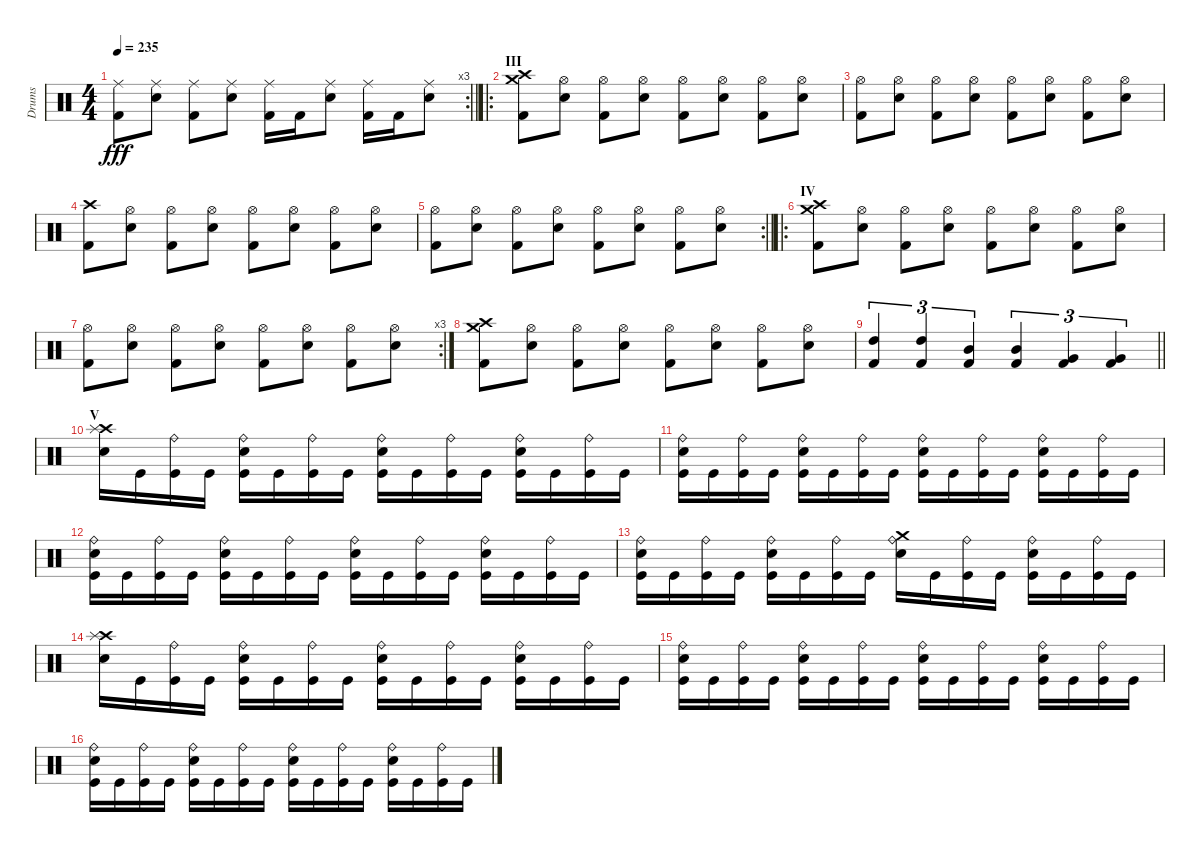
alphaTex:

\track ("Drums" "Drums") {instrument percussion}
\staff {score}
\articulation defaults
\rc 3
\ts (4 4)
\tempo 235
\clef neutral
\barLineRight lightlight
\ks c
("Ride (middle)" "Kick (hit) 2").8{dy fff} ("Ride (middle)" "Electric Snare (hit)").8 ("Ride (middle)" "Kick (hit) 2").8 ("Ride (middle)" "Electric Snare (hit)").8 ("Ride (middle)" "Kick (hit) 2").16 "Kick (hit) 2".16 ("Ride (middle)" "Electric Snare (hit)").8 ("Ride (middle)" "Kick (hit) 2").16 "Kick (hit) 2".16 ("Ride (middle)" "Electric Snare (hit)").8 |
\ro
\section ("" "III")
("Crash high (hit)" "Crash medium (hit)" "Kick (hit) 2").8 ("Hi-Hat (open)" "Snare (hit) 2").8 ("Hi-Hat (open)" "Kick (hit) 2").8 ("Hi-Hat (open)" "Snare (hit) 2").8 ("Hi-Hat (open)" "Kick (hit) 2").8 ("Hi-Hat (open)" "Snare (hit) 2").8 ("Hi-Hat (open)" "Kick (hit) 2").8 ("Hi-Hat (open)" "Snare (hit) 2").8 |
("Hi-Hat (open)" "Kick (hit) 2").8 ("Hi-Hat (open)" "Snare (hit) 2").8 ("Hi-Hat (open)" "Kick (hit) 2").8 ("Hi-Hat (open)" "Snare (hit) 2").8 ("Hi-Hat (open)" "Kick (hit) 2").8 ("Hi-Hat (open)" "Snare (hit) 2").8 ("Hi-Hat (open)" "Kick (hit) 2").8 ("Hi-Hat (open)" "Snare (hit) 2").8 |
("Crash high (hit)" "Kick (hit) 2").8 ("Hi-Hat (open)" "Snare (hit) 2").8 ("Hi-Hat (open)" "Kick (hit) 2").8 ("Hi-Hat (open)" "Snare (hit) 2").8 ("Hi-Hat (open)" "Kick (hit) 2").8 ("Hi-Hat (open)" "Snare (hit) 2").8 ("Hi-Hat (open)" "Kick (hit) 2").8 ("Hi-Hat (open)" "Snare (hit) 2").8 |
\rc 2
\barLineRight lightlight
("Hi-Hat (open)" "Kick (hit) 2").8 ("Hi-Hat (open)" "Snare (hit) 2").8 ("Hi-Hat (open)" "Kick (hit) 2").8 ("Hi-Hat (open)" "Snare (hit) 2").8 ("Hi-Hat (open)" "Kick (hit) 2").8 ("Hi-Hat (open)" "Snare (hit) 2").8 ("Hi-Hat (open)" "Kick (hit) 2").8 ("Hi-Hat (open)" "Snare (hit) 2").8 |
\ro
\section ("" "IV")
("Crash high (hit)" "Crash medium (hit)" "Kick (hit) 2").8 ("Hi-Hat (open)" "Snare (hit) 2").8 ("Hi-Hat (open)" "Kick (hit) 2").8 ("Hi-Hat (open)" "Snare (hit) 2").8 ("Hi-Hat (open)" "Kick (hit) 2").8 ("Hi-Hat (open)" "Snare (hit) 2").8 ("Hi-Hat (open)" "Kick (hit) 2").8 ("Hi-Hat (open)" "Snare (hit) 2").8 |
\rc 3
("Hi-Hat (open)" "Kick (hit) 2").8 ("Hi-Hat (open)" "Snare (hit) 2").8 ("Hi-Hat (open)" "Kick (hit) 2").8 ("Hi-Hat (open)" "Snare (hit) 2").8 ("Hi-Hat (open)" "Kick (hit) 2").8 ("Hi-Hat (open)" "Snare (hit) 2").8 ("Hi-Hat (open)" "Kick (hit) 2").8 ("Hi-Hat (open)" "Snare (hit) 2").8 |
("Crash high (hit)" "Crash medium (hit)" "Kick (hit) 2").8 ("Hi-Hat (open)" "Snare (hit) 2").8 ("Hi-Hat (open)" "Kick (hit) 2").8 ("Hi-Hat (open)" "Snare (hit) 2").8 ("Hi-Hat (open)" "Kick (hit) 2").8 ("Hi-Hat (open)" "Snare (hit) 2").8 ("Hi-Hat (open)" "Kick (hit) 2").8 ("Hi-Hat (open)" "Snare (hit) 2").8 |
\barLineRight lightlight
("High Tom (hit)" "Kick (hit) 2").4{tu (3 2)} ("High Tom (hit)" "Kick (hit) 2").4{tu (3 2)} ("Mid Tom (hit)" "Kick (hit) 2").4{tu (3 2)} ("Mid Tom (hit)" "Kick (hit) 2").4{tu (3 2)} ("Very Low Tom (hit)" "Kick (hit) 2").4{tu (3 2)} ("Very Low Tom (hit)" "Kick (hit) 2").4{tu (3 2)} |
\section ("" "V")
("Crash high (hit)" "Electric Snare (hit)" "Splash (hit)").16 "Kick (hit)".16 ("Kick (hit)" "Ride (bell)").16 "Kick (hit)".16 ("Kick (hit)" "Electric Snare (hit)" "Ride (bell)").16 "Kick (hit)".16 ("Kick (hit)" "Ride (bell)").16 "Kick (hit)".16 ("Kick (hit)" "Electric Snare (hit)" "Ride (bell)").16 "Kick (hit)".16 ("Kick (hit)" "Ride (bell)").16 "Kick (hit)".16 ("Kick (hit)" "Electric Snare (hit)" "Ride (bell)").16 "Kick (hit)".16 ("Kick (hit)" "Ride (bell)").16 "Kick (hit)".16 |
("Kick (hit)" "Electric Snare (hit)" "Ride (bell)").16 "Kick (hit)".16 ("Kick (hit)" "Ride (bell)").16 "Kick (hit)".16 ("Kick (hit)" "Electric Snare (hit)" "Ride (bell)").16 "Kick (hit)".16 ("Kick (hit)" "Ride (bell)").16 "Kick (hit)".16 ("Kick (hit)" "Electric Snare (hit)" "Ride (bell)").16 "Kick (hit)".16 ("Kick (hit)" "Ride (bell)").16 "Kick (hit)".16 ("Kick (hit)" "Electric Snare (hit)" "Ride (bell)").16 "Kick (hit)".16 ("Kick (hit)" "Ride (bell)").16 "Kick (hit)".16 |
("Kick (hit)" "Electric Snare (hit)" "Ride (bell)").16 "Kick (hit)".16 ("Kick (hit)" "Ride (bell)").16 "Kick (hit)".16 ("Kick (hit)" "Electric Snare (hit)" "Ride (bell)").16 "Kick (hit)".16 ("Kick (hit)" "Ride (bell)").16 "Kick (hit)".16 ("Kick (hit)" "Electric Snare (hit)" "Ride (bell)").16 "Kick (hit)".16 ("Kick (hit)" "Ride (bell)").16 "Kick (hit)".16 ("Kick (hit)" "Electric Snare (hit)" "Ride (bell)").16 "Kick (hit)".16 ("Kick (hit)" "Ride (bell)").16 "Kick (hit)".16 |
("Kick (hit)" "Electric Snare (hit)" "Ride (bell)").16 "Kick (hit)".16 ("Kick (hit)" "Ride (bell)").16 "Kick (hit)".16 ("Kick (hit)" "Electric Snare (hit)" "Ride (bell)").16 "Kick (hit)".16 ("Kick (hit)" "Ride (bell)").16 "Kick (hit)".16 ("Crash medium (hit)" "Electric Snare (hit)" "Ride (bell)").16 "Kick (hit)".16 ("Kick (hit)" "Ride (bell)").16 "Kick (hit)".16 ("Kick (hit)" "Electric Snare (hit)" "Ride (bell)").16 "Kick (hit)".16 ("Kick (hit)" "Ride (bell)").16 "Kick (hit)".16 |
("Crash high (hit)" "Electric Snare (hit)" "Splash (hit)").16 "Kick (hit)".16 ("Kick (hit)" "Ride (bell)").16 "Kick (hit)".16 ("Kick (hit)" "Electric Snare (hit)" "Ride (bell)").16 "Kick (hit)".16 ("Kick (hit)" "Ride (bell)").16 "Kick (hit)".16 ("Kick (hit)" "Electric Snare (hit)" "Ride (bell)").16 "Kick (hit)".16 ("Kick (hit)" "Ride (bell)").16 "Kick (hit)".16 ("Kick (hit)" "Electric Snare (hit)" "Ride (bell)").16 "Kick (hit)".16 ("Kick (hit)" "Ride (bell)").16 "Kick (hit)".16 |
("Kick (hit)" "Electric Snare (hit)" "Ride (bell)").16 "Kick (hit)".16 ("Kick (hit)" "Ride (bell)").16 "Kick (hit)".16 ("Kick (hit)" "Electric Snare (hit)" "Ride (bell)").16 "Kick (hit)".16 ("Kick (hit)" "Ride (bell)").16 "Kick (hit)".16 ("Kick (hit)" "Electric Snare (hit)" "Ride (bell)").16 "Kick (hit)".16 ("Kick (hit)" "Ride (bell)").16 "Kick (hit)".16 ("Kick (hit)" "Electric Snare (hit)" "Ride (bell)").16 "Kick (hit)".16 ("Kick (hit)" "Ride (bell)").16 "Kick (hit)".16 |
("Kick (hit)" "Electric Snare (hit)" "Ride (bell)").16 "Kick (hit)".16 ("Kick (hit)" "Ride (bell)").16 "Kick (hit)".16 ("Kick (hit)" "Electric Snare (hit)" "Ride (bell)").16 "Kick (hit)".16 ("Kick (hit)" "Ride (bell)").16 "Kick (hit)".16 ("Kick (hit)" "Electric Snare (hit)" "Ride (bell)").16 "Kick (hit)".16 ("Kick (hit)" "Ride (bell)").16 "Kick (hit)".16 ("Kick (hit)" "Electric Snare (hit)" "Ride (bell)").16 "Kick (hit)".16 ("Kick (hit)" "Ride (bell)").16 "Kick (hit)".16
